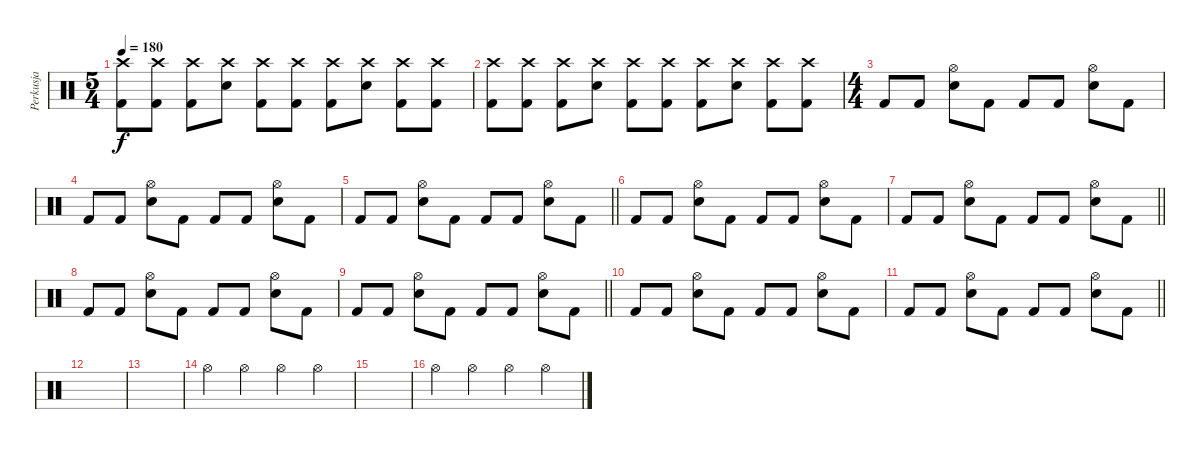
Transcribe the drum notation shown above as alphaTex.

\track ("Perkusja" "Perkusja") {instrument percussion}
\staff {score}
\articulation defaults
\ts (5 4)
\tempo 180
\clef neutral
\ks c
("Kick (hit) 2" "Crash high (hit)").8{dy f} ("Kick (hit) 2" "Crash high (hit)").8 ("Kick (hit) 2" "Crash high (hit)").8 ("Crash high (hit)" "Snare (hit) 2").8 ("Kick (hit) 2" "Crash high (hit)").8 ("Kick (hit) 2" "Crash high (hit)").8 ("Kick (hit) 2" "Crash high (hit)").8 ("Crash high (hit)" "Snare (hit) 2").8 ("Kick (hit) 2" "Crash high (hit)").8 ("Kick (hit) 2" "Crash high (hit)").8 |
("Kick (hit) 2" "Crash high (hit)").8 ("Kick (hit) 2" "Crash high (hit)").8 ("Kick (hit) 2" "Crash high (hit)").8 ("Crash high (hit)" "Snare (hit) 2").8 ("Kick (hit) 2" "Crash high (hit)").8 ("Kick (hit) 2" "Crash high (hit)").8 ("Kick (hit) 2" "Crash high (hit)").8 ("Crash high (hit)" "Snare (hit) 2").8 ("Kick (hit) 2" "Crash high (hit)").8 ("Kick (hit) 2" "Crash high (hit)").8 |
\ts (4 4)
"Kick (hit) 2".8 "Kick (hit) 2".8 ("Snare (hit) 2" "Hi-Hat (open)").8 "Kick (hit) 2".8 "Kick (hit) 2".8 "Kick (hit) 2".8 ("Snare (hit) 2" "Hi-Hat (open)").8 "Kick (hit) 2".8 |
"Kick (hit) 2".8 "Kick (hit) 2".8 ("Snare (hit) 2" "Hi-Hat (open)").8 "Kick (hit) 2".8 "Kick (hit) 2".8 "Kick (hit) 2".8 ("Snare (hit) 2" "Hi-Hat (open)").8 "Kick (hit) 2".8 |
\barLineRight lightlight "Kick (hit) 2".8 "Kick (hit) 2".8
("Snare (hit) 2" "Hi-Hat (open)").8 "Kick (hit) 2".8 "Kick (hit) 2".8 "Kick (hit) 2".8 ("Snare (hit) 2" "Hi-Hat (open)").8 "Kick (hit) 2".8 |
"Kick (hit) 2".8 "Kick (hit) 2".8 ("Snare (hit) 2" "Hi-Hat (open)").8 "Kick (hit) 2".8 "Kick (hit) 2".8 "Kick (hit) 2".8 ("Snare (hit) 2" "Hi-Hat (open)").8 "Kick (hit) 2".8 |
\barLineRight lightlight "Kick (hit) 2".8 "Kick (hit) 2".8
("Snare (hit) 2" "Hi-Hat (open)").8 "Kick (hit) 2".8 "Kick (hit) 2".8 "Kick (hit) 2".8 ("Snare (hit) 2" "Hi-Hat (open)").8 "Kick (hit) 2".8 |
"Kick (hit) 2".8 "Kick (hit) 2".8 ("Snare (hit) 2" "Hi-Hat (open)").8 "Kick (hit) 2".8 "Kick (hit) 2".8 "Kick (hit) 2".8 ("Snare (hit) 2" "Hi-Hat (open)").8 "Kick (hit) 2".8 |
\barLineRight lightlight "Kick (hit) 2".8 "Kick (hit) 2".8
("Snare (hit) 2" "Hi-Hat (open)").8 "Kick (hit) 2".8 "Kick (hit) 2".8 "Kick (hit) 2".8 ("Snare (hit) 2" "Hi-Hat (open)").8 "Kick (hit) 2".8 |
"Kick (hit) 2".8 "Kick (hit) 2".8 ("Snare (hit) 2" "Hi-Hat (open)").8 "Kick (hit) 2".8 "Kick (hit) 2".8 "Kick (hit) 2".8 ("Snare (hit) 2" "Hi-Hat (open)").8 "Kick (hit) 2".8 |
\barLineRight lightlight "Kick (hit) 2".8 "Kick (hit) 2".8
("Snare (hit) 2" "Hi-Hat (open)").8 "Kick (hit) 2".8 "Kick (hit) 2".8 "Kick (hit) 2".8 ("Snare (hit) 2" "Hi-Hat (open)").8 "Kick (hit) 2".8 |
|
|
"Hi-Hat (open)".4 "Hi-Hat (open)".4 "Hi-Hat (open)".4 "Hi-Hat (open)".4 |
|
"Hi-Hat (open)".4 "Hi-Hat (open)".4 "Hi-Hat (open)".4 "Hi-Hat (open)".4
